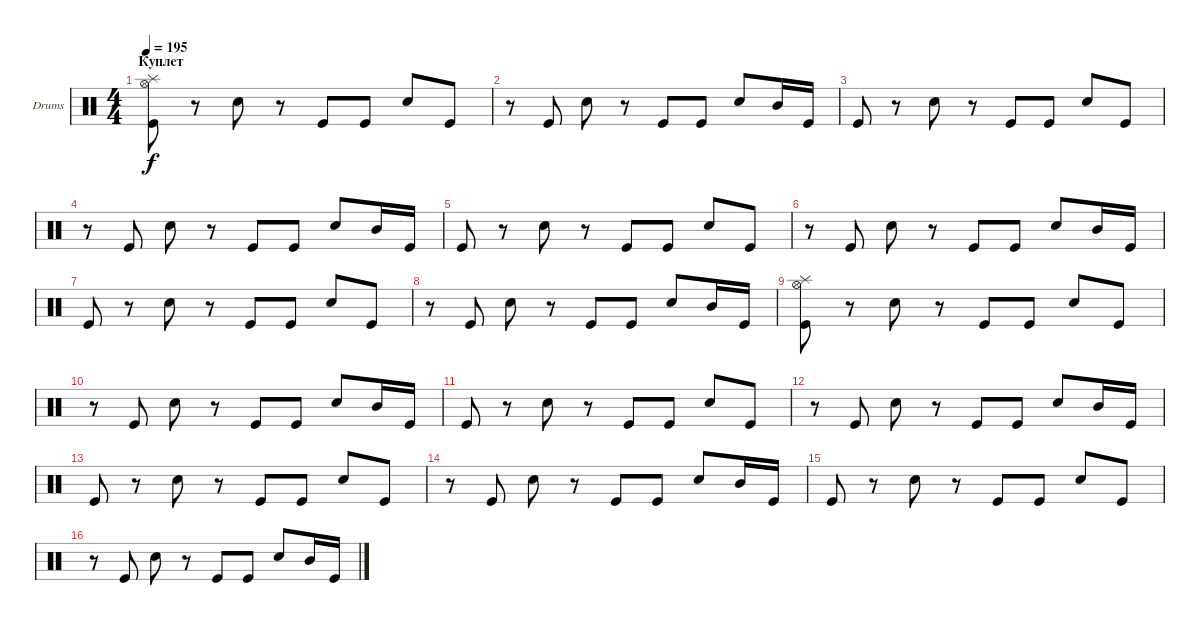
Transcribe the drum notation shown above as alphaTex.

\defaultSystemsLayout 4
\bracketExtendMode groupsimilarinstruments
\firstSystemTrackNameOrientation horizontal
\otherSystemsTrackNameOrientation horizontal
\track ("Drumkit" "Drums") {instrument percussion}
\staff {score}
\articulation defaults
\ts (4 4)
\section ("" "Куплет")
\tempo 195
\clef neutral
\ks c
("Kick (hit)" "Hi-Hat (open)" "Splash (hit)").8{dy f} r.8 "Snare (hit) 2".8 r.8 "Kick (hit)".8 "Kick (hit)".8 "Snare (hit) 2".8 "Kick (hit)".8 |
r.8 "Kick (hit)".8 "Snare (hit) 2".8 r.8 "Kick (hit)".8 "Kick (hit)".8 "Snare (hit) 2".8 "Mid Tom (hit)".16 "Kick (hit)".16 |
"Kick (hit)".8 r.8 "Snare (hit) 2".8 r.8 "Kick (hit)".8 "Kick (hit)".8 "Snare (hit) 2".8 "Kick (hit)".8 |
r.8 "Kick (hit)".8 "Snare (hit) 2".8 r.8 "Kick (hit)".8 "Kick (hit)".8 "Snare (hit) 2".8 "Mid Tom (hit)".16 "Kick (hit)".16 |
"Kick (hit)".8 r.8 "Snare (hit) 2".8 r.8 "Kick (hit)".8 "Kick (hit)".8 "Snare (hit) 2".8 "Kick (hit)".8 |
r.8 "Kick (hit)".8 "Snare (hit) 2".8 r.8 "Kick (hit)".8 "Kick (hit)".8 "Snare (hit) 2".8 "Mid Tom (hit)".16 "Kick (hit)".16 |
"Kick (hit)".8 r.8 "Snare (hit) 2".8 r.8 "Kick (hit)".8 "Kick (hit)".8 "Snare (hit) 2".8 "Kick (hit)".8 |
r.8 "Kick (hit)".8 "Snare (hit) 2".8 r.8 "Kick (hit)".8 "Kick (hit)".8 "Snare (hit) 2".8 "Mid Tom (hit)".16 "Kick (hit)".16 |
("Kick (hit)" "Hi-Hat (open)" "Splash (hit)").8 r.8 "Snare (hit) 2".8 r.8 "Kick (hit)".8 "Kick (hit)".8 "Snare (hit) 2".8 "Kick (hit)".8 |
r.8 "Kick (hit)".8 "Snare (hit) 2".8 r.8 "Kick (hit)".8 "Kick (hit)".8 "Snare (hit) 2".8 "Mid Tom (hit)".16 "Kick (hit)".16 |
"Kick (hit)".8 r.8 "Snare (hit) 2".8 r.8 "Kick (hit)".8 "Kick (hit)".8 "Snare (hit) 2".8 "Kick (hit)".8 |
r.8 "Kick (hit)".8 "Snare (hit) 2".8 r.8 "Kick (hit)".8 "Kick (hit)".8 "Snare (hit) 2".8 "Mid Tom (hit)".16 "Kick (hit)".16 |
"Kick (hit)".8 r.8 "Snare (hit) 2".8 r.8 "Kick (hit)".8 "Kick (hit)".8 "Snare (hit) 2".8 "Kick (hit)".8 |
r.8 "Kick (hit)".8 "Snare (hit) 2".8 r.8 "Kick (hit)".8 "Kick (hit)".8 "Snare (hit) 2".8 "Mid Tom (hit)".16 "Kick (hit)".16 |
"Kick (hit)".8 r.8 "Snare (hit) 2".8 r.8 "Kick (hit)".8 "Kick (hit)".8 "Snare (hit) 2".8 "Kick (hit)".8 |
r.8 "Kick (hit)".8 "Snare (hit) 2".8 r.8 "Kick (hit)".8 "Kick (hit)".8 "Snare (hit) 2".8 "Mid Tom (hit)".16 "Kick (hit)".16
